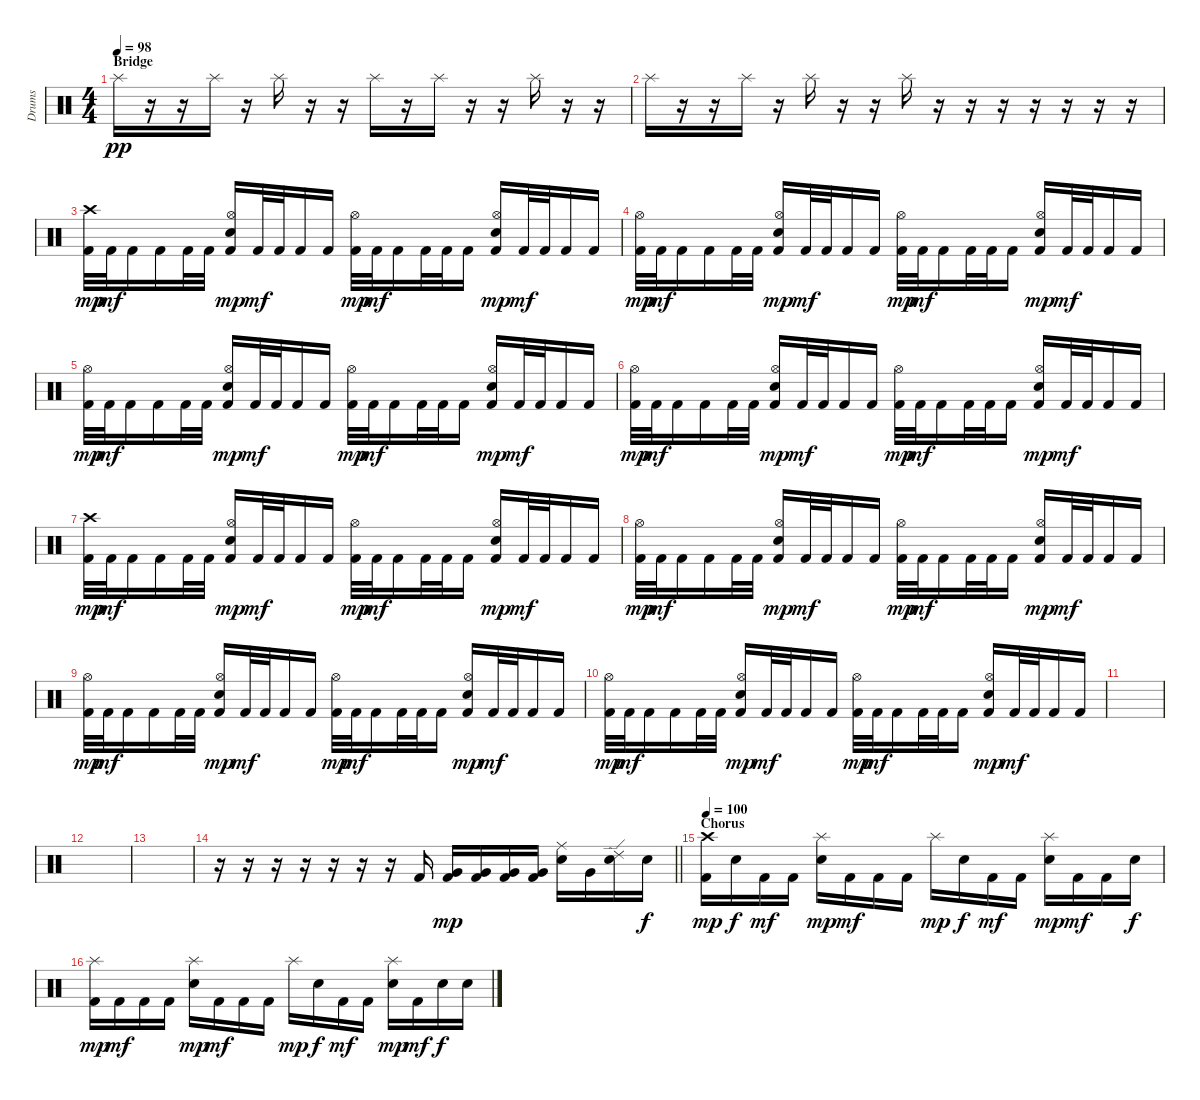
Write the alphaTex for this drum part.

\track ("Drums" "Drums") {instrument percussion}
\staff {score}
\articulation defaults
\ts (4 4)
\section ("" "Bridge")
\tempo 98
\clef neutral
\ks c "Splash (hit)".16{dy pp}
r.16 r.16 "Splash (hit)".16 r.16 "Splash (hit)".16 r.16 r.16 "Splash (hit)".16 r.16 "Splash (hit)".16 r.16 r.16 "Splash (hit)".16 r.16 r.16 |
"Splash (hit)".16 r.16 r.16 "Splash (hit)".16 r.16 "Splash (hit)".16 r.16 r.16 "Splash (hit)".16 r.16 r.16 r.16 r.16 r.16 r.16 r.16 |
("Kick (hit) 2" "Crash high (hit)").32{dy mp} "Kick (hit) 2".32{dy mf} "Kick (hit) 2".16 "Kick (hit) 2".16 "Kick (hit) 2".32 "Kick (hit) 2".32 ("Kick (hit) 2" "Hi-Hat (open)" "Snare (hit) 2").16{dy mp} "Kick (hit) 2".32{dy mf} "Kick (hit) 2".32 "Kick (hit) 2".16 "Kick (hit) 2".16 ("Kick (hit) 2" "Hi-Hat (open)").32{dy mp} "Kick (hit) 2".32{dy mf} "Kick (hit) 2".16 "Kick (hit) 2".32 "Kick (hit) 2".32 "Kick (hit) 2".16 ("Kick (hit) 2" "Hi-Hat (open)" "Snare (hit) 2").16{dy mp} "Kick (hit) 2".32{dy mf} "Kick (hit) 2".32 "Kick (hit) 2".16 "Kick (hit) 2".16 |
("Kick (hit) 2" "Hi-Hat (open)").32{dy mp} "Kick (hit) 2".32{dy mf} "Kick (hit) 2".16 "Kick (hit) 2".16 "Kick (hit) 2".32 "Kick (hit) 2".32 ("Kick (hit) 2" "Hi-Hat (open)" "Snare (hit) 2").16{dy mp} "Kick (hit) 2".32{dy mf} "Kick (hit) 2".32 "Kick (hit) 2".16 "Kick (hit) 2".16 ("Kick (hit) 2" "Hi-Hat (open)").32{dy mp} "Kick (hit) 2".32{dy mf} "Kick (hit) 2".16 "Kick (hit) 2".32 "Kick (hit) 2".32 "Kick (hit) 2".16 ("Kick (hit) 2" "Hi-Hat (open)" "Snare (hit) 2").16{dy mp} "Kick (hit) 2".32{dy mf} "Kick (hit) 2".32 "Kick (hit) 2".16 "Kick (hit) 2".16 |
("Kick (hit) 2" "Hi-Hat (open)").32{dy mp} "Kick (hit) 2".32{dy mf} "Kick (hit) 2".16 "Kick (hit) 2".16 "Kick (hit) 2".32 "Kick (hit) 2".32 ("Kick (hit) 2" "Hi-Hat (open)" "Snare (hit) 2").16{dy mp} "Kick (hit) 2".32{dy mf} "Kick (hit) 2".32 "Kick (hit) 2".16 "Kick (hit) 2".16 ("Kick (hit) 2" "Hi-Hat (open)").32{dy mp} "Kick (hit) 2".32{dy mf} "Kick (hit) 2".16 "Kick (hit) 2".32 "Kick (hit) 2".32 "Kick (hit) 2".16 ("Kick (hit) 2" "Hi-Hat (open)" "Snare (hit) 2").16{dy mp} "Kick (hit) 2".32{dy mf} "Kick (hit) 2".32 "Kick (hit) 2".16 "Kick (hit) 2".16 |
("Kick (hit) 2" "Hi-Hat (open)").32{dy mp} "Kick (hit) 2".32{dy mf} "Kick (hit) 2".16 "Kick (hit) 2".16 "Kick (hit) 2".32 "Kick (hit) 2".32 ("Kick (hit) 2" "Hi-Hat (open)" "Snare (hit) 2").16{dy mp} "Kick (hit) 2".32{dy mf} "Kick (hit) 2".32 "Kick (hit) 2".16 "Kick (hit) 2".16 ("Kick (hit) 2" "Hi-Hat (open)").32{dy mp} "Kick (hit) 2".32{dy mf} "Kick (hit) 2".16 "Kick (hit) 2".32 "Kick (hit) 2".32 "Kick (hit) 2".16 ("Kick (hit) 2" "Hi-Hat (open)" "Snare (hit) 2").16{dy mp} "Kick (hit) 2".32{dy mf} "Kick (hit) 2".32 "Kick (hit) 2".16 "Kick (hit) 2".16 |
("Kick (hit) 2" "Crash high (hit)").32{dy mp} "Kick (hit) 2".32{dy mf} "Kick (hit) 2".16 "Kick (hit) 2".16 "Kick (hit) 2".32 "Kick (hit) 2".32 ("Kick (hit) 2" "Hi-Hat (open)" "Snare (hit) 2").16{dy mp} "Kick (hit) 2".32{dy mf} "Kick (hit) 2".32 "Kick (hit) 2".16 "Kick (hit) 2".16 ("Kick (hit) 2" "Hi-Hat (open)").32{dy mp} "Kick (hit) 2".32{dy mf} "Kick (hit) 2".16 "Kick (hit) 2".32 "Kick (hit) 2".32 "Kick (hit) 2".16 ("Kick (hit) 2" "Hi-Hat (open)" "Snare (hit) 2").16{dy mp} "Kick (hit) 2".32{dy mf} "Kick (hit) 2".32 "Kick (hit) 2".16 "Kick (hit) 2".16 |
("Kick (hit) 2" "Hi-Hat (open)").32{dy mp} "Kick (hit) 2".32{dy mf} "Kick (hit) 2".16 "Kick (hit) 2".16 "Kick (hit) 2".32 "Kick (hit) 2".32 ("Kick (hit) 2" "Hi-Hat (open)" "Snare (hit) 2").16{dy mp} "Kick (hit) 2".32{dy mf} "Kick (hit) 2".32 "Kick (hit) 2".16 "Kick (hit) 2".16 ("Kick (hit) 2" "Hi-Hat (open)").32{dy mp} "Kick (hit) 2".32{dy mf} "Kick (hit) 2".16 "Kick (hit) 2".32 "Kick (hit) 2".32 "Kick (hit) 2".16 ("Kick (hit) 2" "Hi-Hat (open)" "Snare (hit) 2").16{dy mp} "Kick (hit) 2".32{dy mf} "Kick (hit) 2".32 "Kick (hit) 2".16 "Kick (hit) 2".16 |
("Kick (hit) 2" "Hi-Hat (open)").32{dy mp} "Kick (hit) 2".32{dy mf} "Kick (hit) 2".16 "Kick (hit) 2".16 "Kick (hit) 2".32 "Kick (hit) 2".32 ("Kick (hit) 2" "Hi-Hat (open)" "Snare (hit) 2").16{dy mp} "Kick (hit) 2".32{dy mf} "Kick (hit) 2".32 "Kick (hit) 2".16 "Kick (hit) 2".16 ("Kick (hit) 2" "Hi-Hat (open)").32{dy mp} "Kick (hit) 2".32{dy mf} "Kick (hit) 2".16 "Kick (hit) 2".32 "Kick (hit) 2".32 "Kick (hit) 2".16 ("Kick (hit) 2" "Hi-Hat (open)" "Snare (hit) 2").16{dy mp} "Kick (hit) 2".32{dy mf} "Kick (hit) 2".32 "Kick (hit) 2".16 "Kick (hit) 2".16 |
("Kick (hit) 2" "Hi-Hat (open)").32{dy mp} "Kick (hit) 2".32{dy mf} "Kick (hit) 2".16 "Kick (hit) 2".16 "Kick (hit) 2".32 "Kick (hit) 2".32 ("Kick (hit) 2" "Hi-Hat (open)" "Snare (hit) 2").16{dy mp} "Kick (hit) 2".32{dy mf} "Kick (hit) 2".32 "Kick (hit) 2".16 "Kick (hit) 2".16 ("Kick (hit) 2" "Hi-Hat (open)").32{dy mp} "Kick (hit) 2".32{dy mf} "Kick (hit) 2".16 "Kick (hit) 2".32 "Kick (hit) 2".32 "Kick (hit) 2".16 ("Kick (hit) 2" "Hi-Hat (open)" "Snare (hit) 2").16{dy mp} "Kick (hit) 2".32{dy mf} "Kick (hit) 2".32 "Kick (hit) 2".16 "Kick (hit) 2".16 |
|
|
|
\barLineRight lightlight
r.16 r.16 r.16 r.16 r.16 r.16 r.16 "Kick (hit) 2".16 ("Kick (hit) 2" "Very Low Tom (hit)").16{dy mp} ("Kick (hit) 2" "Very Low Tom (hit)").16 ("Kick (hit) 2" "Very Low Tom (hit)").16 ("Kick (hit) 2" "Very Low Tom (hit)").16 ("Ride (middle)" "Snare (hit) 2").16 "Very Low Tom (hit)".16 ("Ride (edge) 2" "Snare (hit) 2").16 "Snare (hit) 2".16{dy f} |
\section ("" "Chorus")
\tempo 100
("Kick (hit) 2" "Crash high (hit)").16{dy mp} "Snare (hit) 2".16{dy f} "Kick (hit) 2".16{dy mf} "Kick (hit) 2".16 ("Splash (hit)" "Snare (hit) 2").16{dy mp} "Kick (hit) 2".16{dy mf} "Kick (hit) 2".16 "Kick (hit) 2".16 "Splash (hit)".16{dy mp} "Snare (hit) 2".16{dy f} "Kick (hit) 2".16{dy mf} "Kick (hit) 2".16 ("Splash (hit)" "Snare (hit) 2").16{dy mp} "Kick (hit) 2".16{dy mf} "Kick (hit) 2".16 "Snare (hit) 2".16{dy f} |
("Kick (hit) 2" "Splash (hit)").16{dy mp} "Kick (hit) 2".16{dy mf} "Kick (hit) 2".16 "Kick (hit) 2".16 ("Splash (hit)" "Snare (hit) 2").16{dy mp} "Kick (hit) 2".16{dy mf} "Kick (hit) 2".16 "Kick (hit) 2".16 "Splash (hit)".16{dy mp} "Snare (hit) 2".16{dy f} "Kick (hit) 2".16{dy mf} "Kick (hit) 2".16 ("Splash (hit)" "Snare (hit) 2").16{dy mp} "Kick (hit) 2".16{dy mf} "Snare (hit) 2".16{dy f} "Snare (hit) 2".16
